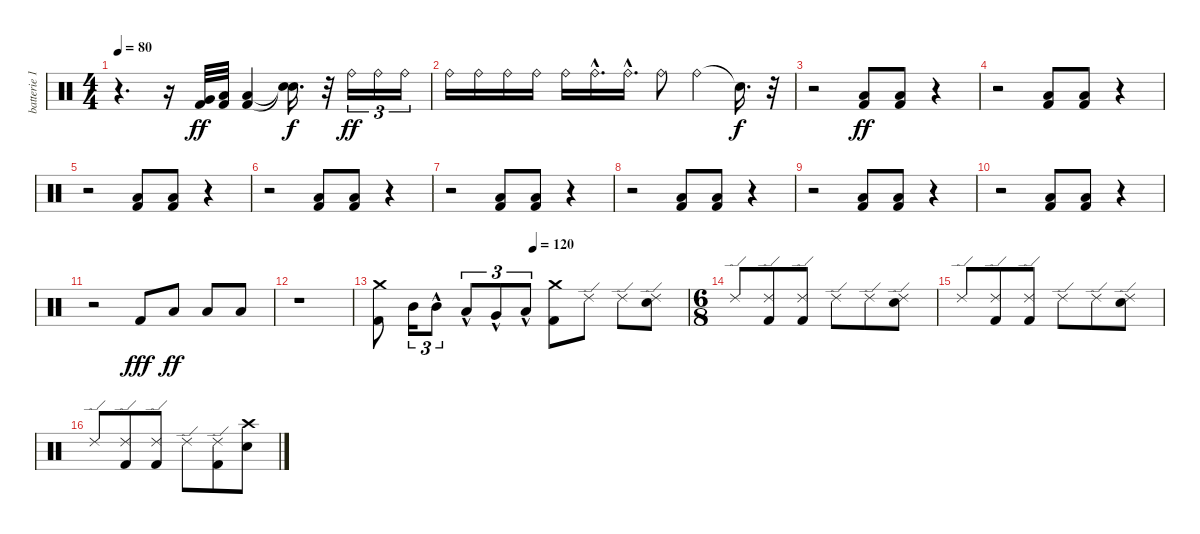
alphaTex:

\track ("batterie 1" "batterie 1") {instrument percussion}
\staff {score}
\articulation defaults
\ts (4 4)
\tempo 80
\clef neutral
\ks c
r.4{d dy ff} r.16 ("Kick (hit) 2" "Very Low Tom (hit)").32 ("Kick (hit) 2" "Low Floor Tom (hit)").32 ("Kick (hit) 2" "Low Floor Tom (hit)").4 ("Snare (hit)"{t} "Snare (hit)"{t}).16{d dy f} r.32 "Ride (bell)".16{tu (3 2) dy ff} "Ride (bell)".16{tu (3 2)} "Ride (bell)".16{tu (3 2)} |
"Ride (bell)".16 "Ride (bell)".16 "Ride (bell)".16 "Ride (bell)".16 "Ride (bell)".16 "Ride (bell)"{hac}.16{d} "Ride (bell)"{hac}.16{d} "Ride (bell)".8 "Ride (bell)".4 "Snare (hit)"{t}.16{d dy f} r.32 |
r.2 ("Kick (hit) 2" "Low Floor Tom (hit)").8{dy ff} ("Kick (hit) 2" "Low Floor Tom (hit)").8 r.4 |
r.2 ("Kick (hit) 2" "Low Floor Tom (hit)").8 ("Kick (hit) 2" "Low Floor Tom (hit)").8 r.4 |
r.2 ("Kick (hit) 2" "Low Floor Tom (hit)").8 ("Kick (hit) 2" "Low Floor Tom (hit)").8 r.4 |
r.2 ("Kick (hit) 2" "Low Floor Tom (hit)").8 ("Kick (hit) 2" "Low Floor Tom (hit)").8 r.4 |
r.2 ("Kick (hit) 2" "Low Floor Tom (hit)").8 ("Kick (hit) 2" "Low Floor Tom (hit)").8 r.4 |
r.2 ("Kick (hit) 2" "Low Floor Tom (hit)").8 ("Kick (hit) 2" "Low Floor Tom (hit)").8 r.4 |
r.2 ("Kick (hit) 2" "Low Floor Tom (hit)").8 ("Kick (hit) 2" "Low Floor Tom (hit)").8 r.4 |
r.2 ("Kick (hit) 2" "Low Floor Tom (hit)").8 ("Kick (hit) 2" "Low Floor Tom (hit)").8 r.4 |
r.2 "Kick (hit) 2".8{dy fff} "Low Floor Tom (hit)".8{dy ff} "Low Floor Tom (hit)".8 "Low Floor Tom (hit)".8 |
r.1 |
\tempo (120 0.5)
("Kick (hit) 2" "Crash medium (hit)").8 "Mid Tom (hit)".16{tu (3 2)} "Mid Tom (hit)"{hac}.8{tu (3 2)} "Low Tom (hit)"{hac}.8{tu (3 2)} "Very Low Tom (hit)"{hac}.8{tu (3 2)} "Low Floor Tom (hit)"{hac}.8{tu (3 2)} ("Kick (hit) 2" "Crash medium (hit)").8 "Ride (edge) 2".8 "Ride (edge) 2".8 ("Electric Snare (hit)" "Ride (edge) 2").8 |
\ts (6 8)
"Ride (edge) 2".8 ("Kick (hit) 2" "Ride (edge) 2").8 ("Kick (hit) 2" "Ride (edge) 2").8 "Ride (edge) 2".8 "Ride (edge) 2".8 ("Electric Snare (hit)" "Ride (edge) 2").8 |
"Ride (edge) 2".8 ("Kick (hit) 2" "Ride (edge) 2").8 ("Kick (hit) 2" "Ride (edge) 2").8 "Ride (edge) 2".8 "Ride (edge) 2".8 ("Electric Snare (hit)" "Ride (edge) 2").8 |
"Ride (edge) 2".8 ("Kick (hit) 2" "Ride (edge) 2").8 ("Kick (hit) 2" "Ride (edge) 2").8 "Ride (edge) 2".8 ("Kick (hit) 2" "Ride (edge) 2").8 ("Electric Snare (hit)" "Crash high (hit)").8
